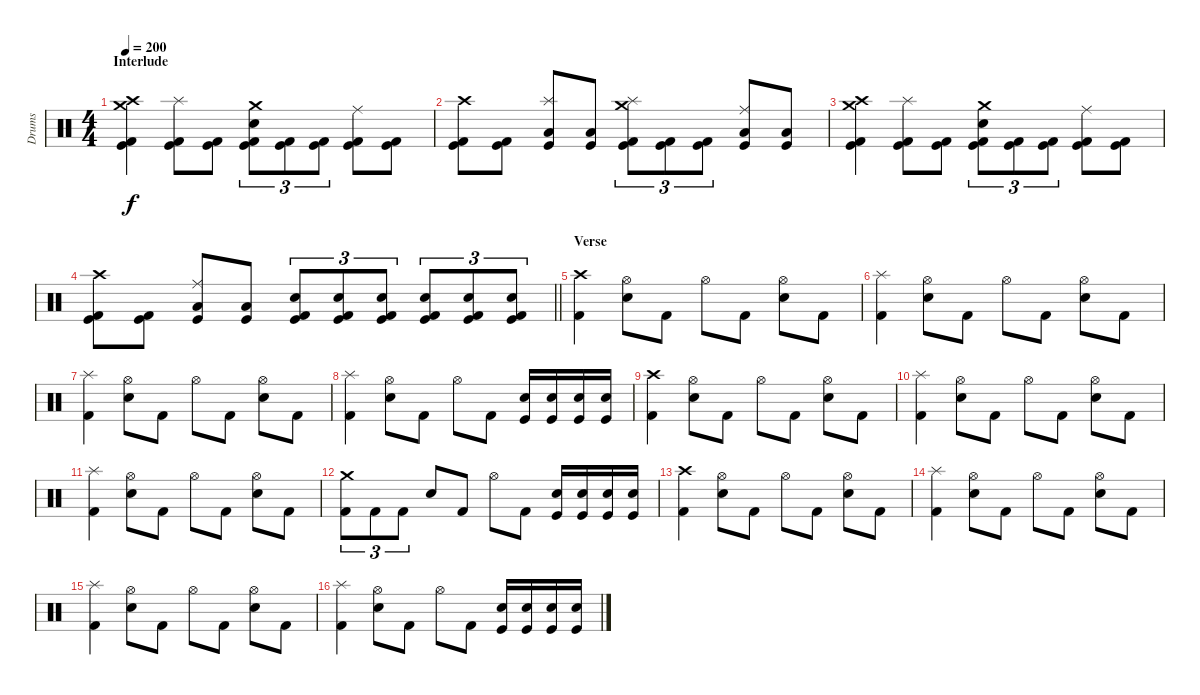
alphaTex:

\track ("Drums" "Drums") {instrument percussion}
\staff {score}
\articulation defaults
\ts (4 4)
\section ("" "Interlude")
\tempo 200
\clef neutral
\ks c
("Crash high (hit)" "Crash medium (hit)" "Kick (hit)" "Kick (hit) 2").4{dy f} ("Splash (hit)" "Kick (hit)" "Kick (hit) 2").8 ("Kick (hit)" "Kick (hit) 2").8 ("Crash medium (hit)" "Snare (hit) 2" "Kick (hit)" "Kick (hit) 2").8{tu (3 2)} ("Kick (hit)" "Kick (hit) 2").8{tu (3 2)} ("Kick (hit)" "Kick (hit) 2").8{tu (3 2)} ("Ride (middle)" "Kick (hit)" "Kick (hit) 2").8 ("Kick (hit)" "Kick (hit) 2").8 |
("Crash high (hit)" "Kick (hit)" "Kick (hit) 2").8 ("Kick (hit)" "Kick (hit) 2").8 ("Splash (hit)" "Kick (hit)" "Low Tom (hit)").8 ("Kick (hit)" "Low Tom (hit)").8 ("Crash medium (hit)" "Splash (hit)" "Kick (hit)" "Kick (hit) 2").8{tu (3 2)} ("Kick (hit)" "Kick (hit) 2").8{tu (3 2)} ("Kick (hit)" "Kick (hit) 2").8{tu (3 2)} ("Ride (middle)" "Kick (hit)" "Low Tom (hit)").8 ("Kick (hit)" "Low Tom (hit)").8 |
("Crash high (hit)" "Crash medium (hit)" "Kick (hit)" "Kick (hit) 2").4 ("Splash (hit)" "Kick (hit)" "Kick (hit) 2").8 ("Kick (hit)" "Kick (hit) 2").8 ("Crash medium (hit)" "Snare (hit) 2" "Kick (hit)" "Kick (hit) 2").8{tu (3 2)} ("Kick (hit)" "Kick (hit) 2").8{tu (3 2)} ("Kick (hit)" "Kick (hit) 2").8{tu (3 2)} ("Ride (middle)" "Kick (hit)" "Kick (hit) 2").8 ("Kick (hit)" "Kick (hit) 2").8 |
\barLineRight lightlight
("Crash high (hit)" "Kick (hit)" "Kick (hit) 2").8 ("Kick (hit)" "Kick (hit) 2").8 ("Ride (middle)" "Kick (hit)" "Low Tom (hit)").8 ("Kick (hit)" "Low Tom (hit)").8 ("Snare (hit) 2" "Kick (hit)" "Kick (hit) 2").8{tu (3 2)} ("Snare (hit) 2" "Kick (hit)" "Kick (hit) 2").8{tu (3 2)} ("Snare (hit) 2" "Kick (hit)" "Kick (hit) 2").8{tu (3 2)} ("Snare (hit) 2" "Kick (hit)" "Kick (hit) 2").8{tu (3 2)} ("Snare (hit) 2" "Kick (hit)" "Kick (hit) 2").8{tu (3 2)} ("Snare (hit) 2" "Kick (hit)" "Kick (hit) 2").8{tu (3 2)} |
\section ("" "Verse")
("Crash high (hit)" "Kick (hit) 2").4 ("Hi-Hat (open)" "Snare (hit) 2").8 "Kick (hit) 2".8 "Hi-Hat (open)".8 "Kick (hit) 2".8 ("Hi-Hat (open)" "Snare (hit) 2").8 "Kick (hit) 2".8 |
("Splash (hit)" "Kick (hit) 2").4 ("Hi-Hat (open)" "Snare (hit) 2").8 "Kick (hit) 2".8 "Hi-Hat (open)".8 "Kick (hit) 2".8 ("Hi-Hat (open)" "Snare (hit) 2").8 "Kick (hit) 2".8 |
("Splash (hit)" "Kick (hit) 2").4 ("Hi-Hat (open)" "Snare (hit) 2").8 "Kick (hit) 2".8 "Hi-Hat (open)".8 "Kick (hit) 2".8 ("Hi-Hat (open)" "Snare (hit) 2").8 "Kick (hit) 2".8 |
("Splash (hit)" "Kick (hit) 2").4 ("Hi-Hat (open)" "Snare (hit) 2").8 "Kick (hit) 2".8 "Hi-Hat (open)".8 "Kick (hit) 2".8 ("Snare (hit) 2" "Kick (hit)").16 ("Snare (hit) 2" "Kick (hit)").16 ("Snare (hit) 2" "Kick (hit)").16 ("Snare (hit) 2" "Kick (hit)").16 |
("Crash high (hit)" "Kick (hit) 2").4 ("Hi-Hat (open)" "Snare (hit) 2").8 "Kick (hit) 2".8 "Hi-Hat (open)".8 "Kick (hit) 2".8 ("Hi-Hat (open)" "Snare (hit) 2").8 "Kick (hit) 2".8 |
("Splash (hit)" "Kick (hit) 2").4 ("Hi-Hat (open)" "Snare (hit) 2").8 "Kick (hit) 2".8 "Hi-Hat (open)".8 "Kick (hit) 2".8 ("Hi-Hat (open)" "Snare (hit) 2").8 "Kick (hit) 2".8 |
("Splash (hit)" "Kick (hit) 2").4 ("Hi-Hat (open)" "Snare (hit) 2").8 "Kick (hit) 2".8 "Hi-Hat (open)".8 "Kick (hit) 2".8 ("Hi-Hat (open)" "Snare (hit) 2").8 "Kick (hit) 2".8 |
("Crash medium (hit)" "Kick (hit) 2").8{tu (3 2)} "Kick (hit) 2".8{tu (3 2)} "Kick (hit) 2".8{tu (3 2)} "Snare (hit) 2".8 "Kick (hit) 2".8 "Hi-Hat (open)".8 "Kick (hit) 2".8 ("Snare (hit) 2" "Kick (hit)").16 ("Snare (hit) 2" "Kick (hit)").16 ("Snare (hit) 2" "Kick (hit)").16 ("Snare (hit) 2" "Kick (hit)").16 |
("Crash high (hit)" "Kick (hit) 2").4 ("Hi-Hat (open)" "Snare (hit) 2").8 "Kick (hit) 2".8 "Hi-Hat (open)".8 "Kick (hit) 2".8 ("Hi-Hat (open)" "Snare (hit) 2").8 "Kick (hit) 2".8 |
("Splash (hit)" "Kick (hit) 2").4 ("Hi-Hat (open)" "Snare (hit) 2").8 "Kick (hit) 2".8 "Hi-Hat (open)".8 "Kick (hit) 2".8 ("Hi-Hat (open)" "Snare (hit) 2").8 "Kick (hit) 2".8 |
("Splash (hit)" "Kick (hit) 2").4 ("Hi-Hat (open)" "Snare (hit) 2").8 "Kick (hit) 2".8 "Hi-Hat (open)".8 "Kick (hit) 2".8 ("Hi-Hat (open)" "Snare (hit) 2").8 "Kick (hit) 2".8 |
("Splash (hit)" "Kick (hit) 2").4 ("Hi-Hat (open)" "Snare (hit) 2").8 "Kick (hit) 2".8 "Hi-Hat (open)".8 "Kick (hit) 2".8 ("Snare (hit) 2" "Kick (hit)").16 ("Snare (hit) 2" "Kick (hit)").16 ("Snare (hit) 2" "Kick (hit)").16 ("Snare (hit) 2" "Kick (hit)").16
